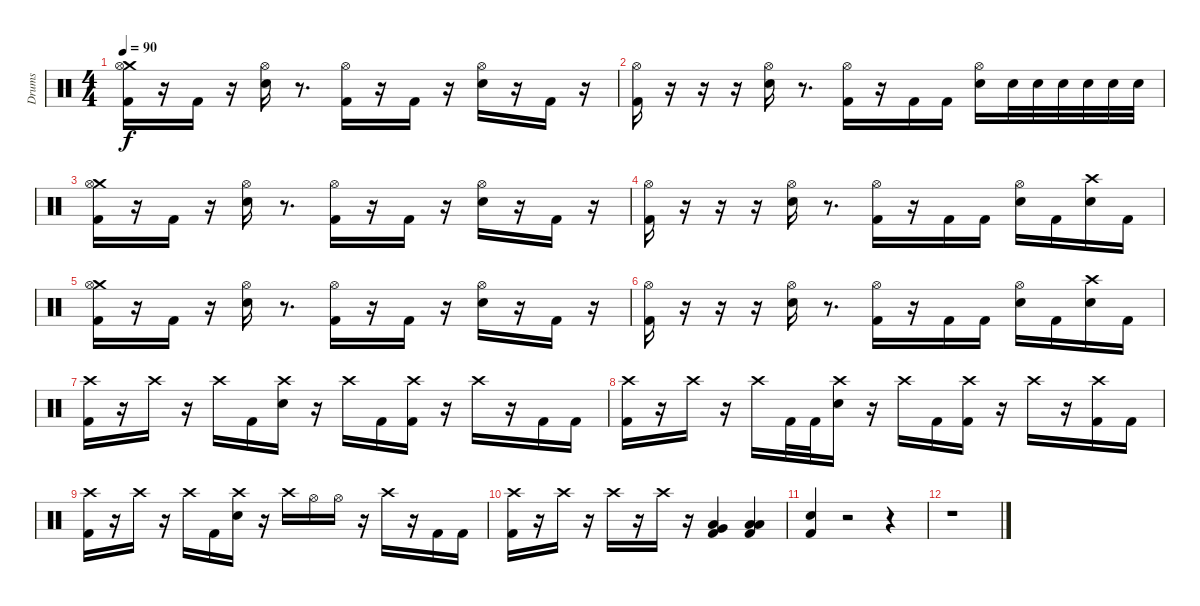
\track ("Drums" "Drums") {instrument percussion}
\staff {score}
\articulation defaults
\ts (4 4)
\tempo 90
\clef neutral
\ks c
("Crash medium (hit)" "Hi-Hat (open)" "Kick (hit) 2").16{dy f} r.16 "Kick (hit) 2".16 r.16 ("Hi-Hat (open)" "Electric Snare (hit)").16 r.8{d} ("Hi-Hat (open)" "Kick (hit) 2").16 r.16 "Kick (hit) 2".16 r.16 ("Hi-Hat (open)" "Electric Snare (hit)").16 r.16 "Kick (hit) 2".16 r.16 |
("Hi-Hat (open)" "Kick (hit) 2").16 r.16 r.16 r.16 ("Hi-Hat (open)" "Electric Snare (hit)").16 r.8{d} ("Hi-Hat (open)" "Kick (hit) 2").16 r.16 "Kick (hit) 2".16 "Kick (hit) 2".16 ("Hi-Hat (open)" "Electric Snare (hit)").16 "Electric Snare (hit)".32 "Electric Snare (hit)".32 "Electric Snare (hit)".32 "Electric Snare (hit)".32 "Electric Snare (hit)".32 "Electric Snare (hit)".32 |
("Crash medium (hit)" "Hi-Hat (open)" "Kick (hit) 2").16 r.16 "Kick (hit) 2".16 r.16 ("Hi-Hat (open)" "Electric Snare (hit)").16 r.8{d} ("Hi-Hat (open)" "Kick (hit) 2").16 r.16 "Kick (hit) 2".16 r.16 ("Hi-Hat (open)" "Electric Snare (hit)").16 r.16 "Kick (hit) 2".16 r.16 |
("Hi-Hat (open)" "Kick (hit) 2").16 r.16 r.16 r.16 ("Hi-Hat (open)" "Electric Snare (hit)").16 r.8{d} ("Hi-Hat (open)" "Kick (hit) 2").16 r.16 "Kick (hit) 2".16 "Kick (hit) 2".16 ("Hi-Hat (open)" "Electric Snare (hit)").16 "Kick (hit) 2".16 ("Crash high (hit)" "Electric Snare (hit)").16 "Kick (hit) 2".16 |
("Crash medium (hit)" "Hi-Hat (open)" "Kick (hit) 2").16 r.16 "Kick (hit) 2".16 r.16 ("Hi-Hat (open)" "Electric Snare (hit)").16 r.8{d} ("Hi-Hat (open)" "Kick (hit) 2").16 r.16 "Kick (hit) 2".16 r.16 ("Hi-Hat (open)" "Electric Snare (hit)").16 r.16 "Kick (hit) 2".16 r.16 |
("Hi-Hat (open)" "Kick (hit) 2").16 r.16 r.16 r.16 ("Hi-Hat (open)" "Electric Snare (hit)").16 r.8{d} ("Hi-Hat (open)" "Kick (hit) 2").16 r.16 "Kick (hit) 2".16 "Kick (hit) 2".16 ("Hi-Hat (open)" "Electric Snare (hit)").16 "Kick (hit) 2".16 ("Crash high (hit)" "Electric Snare (hit)").16 "Kick (hit) 2".16 |
("Crash high (hit)" "Kick (hit) 2").16 r.16 "Crash high (hit)".16 r.16 "Crash high (hit)".16 "Kick (hit) 2".16 ("Crash high (hit)" "Electric Snare (hit)").16 r.16 "Crash high (hit)".16 "Kick (hit) 2".16 ("Crash high (hit)" "Kick (hit) 2").16 r.16 "Crash high (hit)".16 r.16 "Kick (hit) 2".16 "Kick (hit) 2".16 |
("Crash high (hit)" "Kick (hit) 2").16 r.16 "Crash high (hit)".16 r.16 "Crash high (hit)".16 "Kick (hit) 2".32 "Kick (hit) 2".32 ("Crash high (hit)" "Electric Snare (hit)").16 r.16 "Crash high (hit)".16 "Kick (hit) 2".16 ("Crash high (hit)" "Kick (hit) 2").16 r.16 "Crash high (hit)".16 r.16 ("Crash high (hit)" "Kick (hit) 2").16 "Kick (hit) 2".16 |
("Crash high (hit)" "Kick (hit) 2").16 r.16 "Crash high (hit)".16 r.16 "Crash high (hit)".16 "Kick (hit) 2".16 ("Crash high (hit)" "Electric Snare (hit)").16 r.16 "Crash high (hit)".16 "Hi-Hat (open)".16 "Hi-Hat (open)".16 r.16 "Crash high (hit)".16 r.16 "Kick (hit) 2".16 "Kick (hit) 2".16 |
("Crash high (hit)" "Kick (hit) 2").16 r.16 "Crash high (hit)".16 r.16 "Crash high (hit)".16 r.16 "Crash high (hit)".16 r.16 ("Very Low Tom (hit)" "Low Floor Tom (hit)" "Kick (hit) 2").4 ("Low Tom (hit)" "Low Floor Tom (hit)" "Kick (hit) 2").4 |
("Electric Snare (hit)" "Kick (hit) 2").4 r.2 r.4 |
r.1
